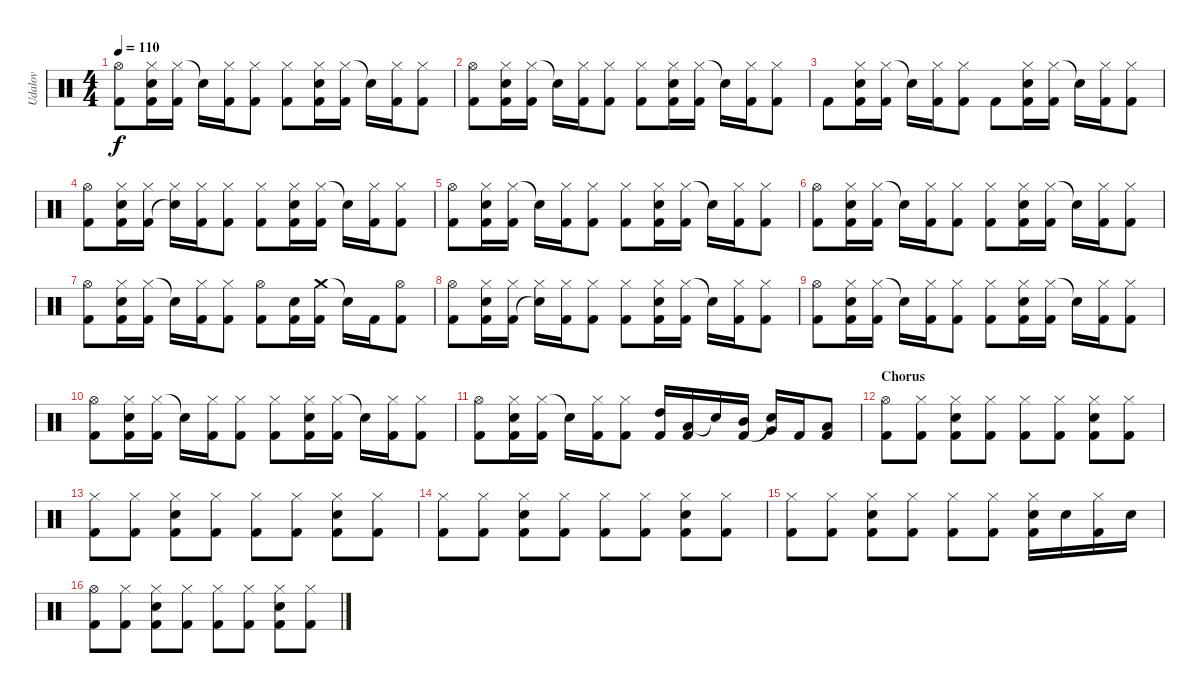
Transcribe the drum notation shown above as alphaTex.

\track ("Udalov" "Udalov") {instrument percussion}
\staff {score}
\articulation defaults
\ts (4 4)
\tempo 110
\clef neutral
\ks c
("Hi-Hat (open)" "Kick (hit) 2").8{dy f} ("Hi-Hat (closed)" "Snare (hit) 2" "Kick (hit) 2").16 ("Hi-Hat (closed)" "Kick (hit) 2").16 "Snare (hit)"{t}.16 ("Hi-Hat (closed)" "Kick (hit) 2").16 ("Hi-Hat (closed)" "Kick (hit) 2").8 ("Hi-Hat (closed)" "Kick (hit) 2").8 ("Hi-Hat (closed)" "Snare (hit) 2" "Kick (hit) 2").16 ("Hi-Hat (closed)" "Kick (hit) 2").16 "Snare (hit)"{t}.16 ("Hi-Hat (closed)" "Kick (hit) 2").16 ("Hi-Hat (closed)" "Kick (hit) 2").8 |
("Hi-Hat (open)" "Kick (hit) 2").8 ("Hi-Hat (closed)" "Snare (hit) 2" "Kick (hit) 2").16 ("Hi-Hat (closed)" "Kick (hit) 2").16 "Snare (hit)"{t}.16 ("Hi-Hat (closed)" "Kick (hit) 2").16 ("Hi-Hat (closed)" "Kick (hit) 2").8 ("Hi-Hat (closed)" "Kick (hit) 2").8 ("Hi-Hat (closed)" "Snare (hit) 2" "Kick (hit) 2").16 ("Hi-Hat (closed)" "Kick (hit) 2").16 "Snare (hit)"{t}.16 ("Hi-Hat (closed)" "Kick (hit) 2").16 ("Hi-Hat (closed)" "Kick (hit) 2").8 |
"Kick (hit) 2".8 ("Hi-Hat (closed)" "Snare (hit) 2" "Kick (hit) 2").16 ("Hi-Hat (closed)" "Kick (hit) 2").16 "Snare (hit)"{t}.16 ("Hi-Hat (closed)" "Kick (hit) 2").16 ("Hi-Hat (closed)" "Kick (hit) 2").8 "Kick (hit) 2".8 ("Hi-Hat (closed)" "Snare (hit) 2" "Kick (hit) 2").16 ("Hi-Hat (closed)" "Kick (hit) 2").16 "Snare (hit)"{t}.16 ("Hi-Hat (closed)" "Kick (hit) 2").16 ("Hi-Hat (closed)" "Kick (hit) 2").8 |
("Hi-Hat (open)" "Kick (hit) 2").8 ("Hi-Hat (closed)" "Snare (hit) 2" "Kick (hit) 2").16 ("Hi-Hat (closed)" "Kick (hit) 2").16 ("Hi-Hat (closed)" "Snare (hit)"{t}).16 ("Hi-Hat (closed)" "Kick (hit) 2").16 ("Hi-Hat (closed)" "Kick (hit) 2").8 ("Hi-Hat (closed)" "Kick (hit) 2").8 ("Hi-Hat (closed)" "Snare (hit) 2" "Kick (hit) 2").16 ("Hi-Hat (closed)" "Kick (hit) 2").16 "Snare (hit)"{t}.16 ("Hi-Hat (closed)" "Kick (hit) 2").16 ("Hi-Hat (closed)" "Kick (hit) 2").8 |
("Hi-Hat (open)" "Kick (hit) 2").8 ("Hi-Hat (closed)" "Snare (hit) 2" "Kick (hit) 2").16 ("Hi-Hat (closed)" "Kick (hit) 2").16 "Snare (hit)"{t}.16 ("Hi-Hat (closed)" "Kick (hit) 2").16 ("Hi-Hat (closed)" "Kick (hit) 2").8 ("Hi-Hat (closed)" "Kick (hit) 2").8 ("Hi-Hat (closed)" "Snare (hit) 2" "Kick (hit) 2").16 ("Hi-Hat (closed)" "Kick (hit) 2").16 "Snare (hit)"{t}.16 ("Hi-Hat (closed)" "Kick (hit) 2").16 ("Hi-Hat (closed)" "Kick (hit) 2").8 |
("Hi-Hat (open)" "Kick (hit) 2").8 ("Hi-Hat (closed)" "Snare (hit) 2" "Kick (hit) 2").16 ("Hi-Hat (closed)" "Kick (hit) 2").16 "Snare (hit)"{t}.16 ("Hi-Hat (closed)" "Kick (hit) 2").16 ("Hi-Hat (closed)" "Kick (hit) 2").8 ("Hi-Hat (closed)" "Kick (hit) 2").8 ("Hi-Hat (closed)" "Snare (hit) 2" "Kick (hit) 2").16 ("Hi-Hat (closed)" "Kick (hit) 2").16 "Snare (hit)"{t}.16 ("Hi-Hat (closed)" "Kick (hit) 2").16 ("Hi-Hat (closed)" "Kick (hit) 2").8 |
("Hi-Hat (open)" "Kick (hit) 2").8 ("Hi-Hat (closed)" "Snare (hit) 2" "Kick (hit) 2").16 ("Hi-Hat (closed)" "Kick (hit) 2").16 "Snare (hit)"{t}.16 ("Hi-Hat (closed)" "Kick (hit) 2").16 ("Hi-Hat (closed)" "Kick (hit) 2").8 ("Hi-Hat (open)" "Kick (hit) 2").8 ("Snare (hit) 2" "Kick (hit) 2").16 ("Crash medium (hit)" "Kick (hit) 2").16 "Snare (hit)"{t}.16 "Kick (hit) 2".16 ("Hi-Hat (open)" "Kick (hit) 2").8 |
("Hi-Hat (open)" "Kick (hit) 2").8 ("Hi-Hat (closed)" "Snare (hit) 2" "Kick (hit) 2").16 ("Hi-Hat (closed)" "Kick (hit) 2").16 ("Hi-Hat (closed)" "Snare (hit)"{t}).16 ("Hi-Hat (closed)" "Kick (hit) 2").16 ("Hi-Hat (closed)" "Kick (hit) 2").8 ("Hi-Hat (closed)" "Kick (hit) 2").8 ("Hi-Hat (closed)" "Snare (hit) 2" "Kick (hit) 2").16 ("Hi-Hat (closed)" "Kick (hit) 2").16 "Snare (hit)"{t}.16 ("Hi-Hat (closed)" "Kick (hit) 2").16 ("Hi-Hat (closed)" "Kick (hit) 2").8 |
("Hi-Hat (open)" "Kick (hit) 2").8 ("Hi-Hat (closed)" "Snare (hit) 2" "Kick (hit) 2").16 ("Hi-Hat (closed)" "Kick (hit) 2").16 "Snare (hit)"{t}.16 ("Hi-Hat (closed)" "Kick (hit) 2").16 ("Hi-Hat (closed)" "Kick (hit) 2").8 ("Hi-Hat (closed)" "Kick (hit) 2").8 ("Hi-Hat (closed)" "Snare (hit) 2" "Kick (hit) 2").16 ("Hi-Hat (closed)" "Kick (hit) 2").16 "Snare (hit)"{t}.16 ("Hi-Hat (closed)" "Kick (hit) 2").16 ("Hi-Hat (closed)" "Kick (hit) 2").8 |
("Hi-Hat (open)" "Kick (hit) 2").8 ("Hi-Hat (closed)" "Snare (hit) 2" "Kick (hit) 2").16 ("Hi-Hat (closed)" "Kick (hit) 2").16 "Snare (hit)"{t}.16 ("Hi-Hat (closed)" "Kick (hit) 2").16 ("Hi-Hat (closed)" "Kick (hit) 2").8 ("Hi-Hat (closed)" "Kick (hit) 2").8 ("Hi-Hat (closed)" "Snare (hit) 2" "Kick (hit) 2").16 ("Hi-Hat (closed)" "Kick (hit) 2").16 "Snare (hit)"{t}.16 ("Hi-Hat (closed)" "Kick (hit) 2").16 ("Hi-Hat (closed)" "Kick (hit) 2").8 |
("Hi-Hat (open)" "Kick (hit) 2").8 ("Hi-Hat (closed)" "Snare (hit) 2" "Kick (hit) 2").16 ("Hi-Hat (closed)" "Kick (hit) 2").16 "Snare (hit)"{t}.16 ("Hi-Hat (closed)" "Kick (hit) 2").16 ("Hi-Hat (closed)" "Kick (hit) 2").8 ("High Tom (hit)" "Kick (hit) 2").16 ("Low Tom (hit)" "Kick (hit) 2").16 "Snare (hit)"{t}.16 ("Mid Tom (hit)" "Kick (hit) 2").16 ("Very Low Tom (hit)" "Snare (hit)"{t}).16 "Kick (hit) 2".16 ("Low Tom (hit)" "Kick (hit) 2").8 |
\section ("" "Chorus")
("Hi-Hat (open)" "Kick (hit) 2").8 ("Hi-Hat (closed)" "Kick (hit) 2").8 ("Hi-Hat (closed)" "Snare (hit) 2" "Kick (hit) 2").8 ("Hi-Hat (closed)" "Kick (hit) 2").8 ("Hi-Hat (closed)" "Kick (hit) 2").8 ("Hi-Hat (closed)" "Kick (hit) 2").8 ("Hi-Hat (closed)" "Snare (hit) 2" "Kick (hit) 2").8 ("Hi-Hat (closed)" "Kick (hit) 2").8 |
("Hi-Hat (closed)" "Kick (hit) 2").8 ("Hi-Hat (closed)" "Kick (hit) 2").8 ("Hi-Hat (closed)" "Snare (hit) 2" "Kick (hit) 2").8 ("Hi-Hat (closed)" "Kick (hit) 2").8 ("Hi-Hat (closed)" "Kick (hit) 2").8 ("Hi-Hat (closed)" "Kick (hit) 2").8 ("Hi-Hat (closed)" "Snare (hit) 2" "Kick (hit) 2").8 ("Hi-Hat (closed)" "Kick (hit) 2").8 |
("Hi-Hat (closed)" "Kick (hit) 2").8 ("Hi-Hat (closed)" "Kick (hit) 2").8 ("Hi-Hat (closed)" "Snare (hit) 2" "Kick (hit) 2").8 ("Hi-Hat (closed)" "Kick (hit) 2").8 ("Hi-Hat (closed)" "Kick (hit) 2").8 ("Hi-Hat (closed)" "Kick (hit) 2").8 ("Hi-Hat (closed)" "Snare (hit) 2" "Kick (hit) 2").8 ("Hi-Hat (closed)" "Kick (hit) 2").8 |
("Hi-Hat (closed)" "Kick (hit) 2").8 ("Hi-Hat (closed)" "Kick (hit) 2").8 ("Hi-Hat (closed)" "Snare (hit) 2" "Kick (hit) 2").8 ("Hi-Hat (closed)" "Kick (hit) 2").8 ("Hi-Hat (closed)" "Kick (hit) 2").8 ("Hi-Hat (closed)" "Kick (hit) 2").8 ("Hi-Hat (closed)" "Snare (hit) 2" "Kick (hit) 2").16 "Snare (hit) 2".16 ("Hi-Hat (closed)" "Kick (hit) 2").16 "Snare (hit) 2".16 |
("Hi-Hat (open)" "Kick (hit) 2").8 ("Hi-Hat (closed)" "Kick (hit) 2").8 ("Hi-Hat (closed)" "Snare (hit) 2" "Kick (hit) 2").8 ("Hi-Hat (closed)" "Kick (hit) 2").8 ("Hi-Hat (closed)" "Kick (hit) 2").8 ("Hi-Hat (closed)" "Kick (hit) 2").8 ("Hi-Hat (closed)" "Snare (hit) 2" "Kick (hit) 2").8 ("Hi-Hat (closed)" "Kick (hit) 2").8
